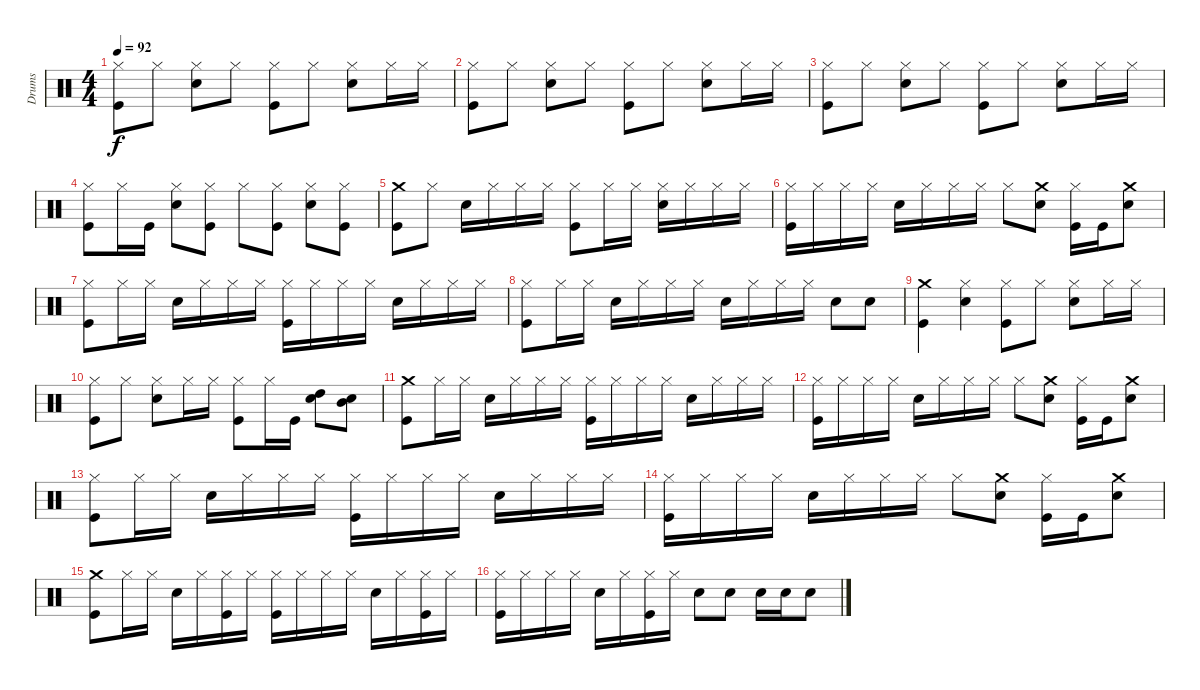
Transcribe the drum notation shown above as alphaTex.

\track ("Drums" "Drums") {instrument percussion}
\staff {score}
\articulation defaults
\ts (4 4)
\tempo 92
\clef neutral
\ks c
("Kick (hit)" "Hi-Hat (closed)").8{dy f} "Hi-Hat (closed)".8 ("Electric Snare (hit)" "Hi-Hat (closed)").8 "Hi-Hat (closed)".8 ("Kick (hit)" "Hi-Hat (closed)").8 "Hi-Hat (closed)".8 ("Electric Snare (hit)" "Hi-Hat (closed)").8 "Hi-Hat (closed)".16 "Hi-Hat (closed)".16 |
("Kick (hit)" "Hi-Hat (closed)").8 "Hi-Hat (closed)".8 ("Electric Snare (hit)" "Hi-Hat (closed)").8 "Hi-Hat (closed)".8 ("Kick (hit)" "Hi-Hat (closed)").8 "Hi-Hat (closed)".8 ("Electric Snare (hit)" "Hi-Hat (closed)").8 "Hi-Hat (closed)".16 "Hi-Hat (closed)".16 |
("Kick (hit)" "Hi-Hat (closed)").8 "Hi-Hat (closed)".8 ("Electric Snare (hit)" "Hi-Hat (closed)").8 "Hi-Hat (closed)".8 ("Kick (hit)" "Hi-Hat (closed)").8 "Hi-Hat (closed)".8 ("Electric Snare (hit)" "Hi-Hat (closed)").8 "Hi-Hat (closed)".16 "Hi-Hat (closed)".16 |
("Kick (hit)" "Hi-Hat (closed)").8 "Hi-Hat (closed)".16 "Kick (hit)".16 ("Electric Snare (hit)" "Hi-Hat (closed)").8 ("Kick (hit)" "Hi-Hat (closed)").8 "Hi-Hat (closed)".8 ("Kick (hit)" "Hi-Hat (closed)").8 ("Electric Snare (hit)" "Hi-Hat (closed)").8 ("Kick (hit)" "Hi-Hat (closed)").8 |
("Kick (hit)" "Crash medium (hit)").8 "Hi-Hat (closed)".8 "Electric Snare (hit)".16 "Hi-Hat (closed)".16 "Hi-Hat (closed)".16 "Hi-Hat (closed)".16 ("Kick (hit)" "Hi-Hat (closed)").8 "Hi-Hat (closed)".16 "Hi-Hat (closed)".16 ("Electric Snare (hit)" "Hi-Hat (closed)").16 "Hi-Hat (closed)".16 "Hi-Hat (closed)".16 "Hi-Hat (closed)".16 |
("Kick (hit)" "Hi-Hat (closed)").16 "Hi-Hat (closed)".16 "Hi-Hat (closed)".16 "Hi-Hat (closed)".16 "Electric Snare (hit)".16 "Hi-Hat (closed)".16 "Hi-Hat (closed)".16 "Hi-Hat (closed)".16 "Hi-Hat (closed)".8 ("Electric Snare (hit)" "Crash medium (hit)").8 ("Kick (hit)" "Hi-Hat (closed)").16 "Kick (hit)".16 ("Electric Snare (hit)" "Crash medium (hit)").8 |
("Kick (hit)" "Hi-Hat (closed)").8 "Hi-Hat (closed)".16 "Hi-Hat (closed)".16 "Electric Snare (hit)".16 "Hi-Hat (closed)".16 "Hi-Hat (closed)".16 "Hi-Hat (closed)".16 ("Kick (hit)" "Hi-Hat (closed)").16 "Hi-Hat (closed)".16 "Hi-Hat (closed)".16 "Hi-Hat (closed)".16 "Electric Snare (hit)".16 "Hi-Hat (closed)".16 "Hi-Hat (closed)".16 "Hi-Hat (closed)".16 |
("Kick (hit)" "Hi-Hat (closed)").8 "Hi-Hat (closed)".16 "Hi-Hat (closed)".16 "Electric Snare (hit)".16 "Hi-Hat (closed)".16 "Hi-Hat (closed)".16 "Hi-Hat (closed)".16 "Electric Snare (hit)".16 "Hi-Hat (closed)".16 "Hi-Hat (closed)".16 "Hi-Hat (closed)".16 "Electric Snare (hit)".8 "Electric Snare (hit)".8 |
("Kick (hit)" "Crash medium (hit)").4 ("Electric Snare (hit)" "Hi-Hat (closed)").4 ("Kick (hit)" "Hi-Hat (closed)").8 "Hi-Hat (closed)".8 ("Electric Snare (hit)" "Hi-Hat (closed)").8 "Hi-Hat (closed)".16 "Hi-Hat (closed)".16 |
("Kick (hit)" "Hi-Hat (closed)").8 "Hi-Hat (closed)".8 ("Electric Snare (hit)" "Hi-Hat (closed)").8 "Hi-Hat (closed)".16 "Hi-Hat (closed)".16 ("Kick (hit)" "Hi-Hat (closed)").8 "Hi-Hat (closed)".16 "Kick (hit)".16 ("Electric Snare (hit)" "High Tom (hit)").8 ("Electric Snare (hit)" "Mid Tom (hit)").8 |
("Kick (hit)" "Crash medium (hit)").8 "Hi-Hat (closed)".16 "Hi-Hat (closed)".16 "Electric Snare (hit)".16 "Hi-Hat (closed)".16 "Hi-Hat (closed)".16 "Hi-Hat (closed)".16 ("Kick (hit)" "Hi-Hat (closed)").16 "Hi-Hat (closed)".16 "Hi-Hat (closed)".16 "Hi-Hat (closed)".16 "Electric Snare (hit)".16 "Hi-Hat (closed)".16 "Hi-Hat (closed)".16 "Hi-Hat (closed)".16 |
("Kick (hit)" "Hi-Hat (closed)").16 "Hi-Hat (closed)".16 "Hi-Hat (closed)".16 "Hi-Hat (closed)".16 "Electric Snare (hit)".16 "Hi-Hat (closed)".16 "Hi-Hat (closed)".16 "Hi-Hat (closed)".16 "Hi-Hat (closed)".8 ("Electric Snare (hit)" "Crash medium (hit)").8 ("Kick (hit)" "Hi-Hat (closed)").16 "Kick (hit)".16 ("Electric Snare (hit)" "Crash medium (hit)").8 |
("Kick (hit)" "Hi-Hat (closed)").8 "Hi-Hat (closed)".16 "Hi-Hat (closed)".16 "Electric Snare (hit)".16 "Hi-Hat (closed)".16 "Hi-Hat (closed)".16 "Hi-Hat (closed)".16 ("Kick (hit)" "Hi-Hat (closed)").16 "Hi-Hat (closed)".16 "Hi-Hat (closed)".16 "Hi-Hat (closed)".16 "Electric Snare (hit)".16 "Hi-Hat (closed)".16 "Hi-Hat (closed)".16 "Hi-Hat (closed)".16 |
("Kick (hit)" "Hi-Hat (closed)").16 "Hi-Hat (closed)".16 "Hi-Hat (closed)".16 "Hi-Hat (closed)".16 "Electric Snare (hit)".16 "Hi-Hat (closed)".16 "Hi-Hat (closed)".16 "Hi-Hat (closed)".16 "Hi-Hat (closed)".8 ("Electric Snare (hit)" "Crash medium (hit)").8 ("Kick (hit)" "Hi-Hat (closed)").16 "Kick (hit)".16 ("Electric Snare (hit)" "Crash medium (hit)").8 |
("Kick (hit)" "Crash medium (hit)").8 "Hi-Hat (closed)".16 "Hi-Hat (closed)".16 "Electric Snare (hit)".16 "Hi-Hat (closed)".16 ("Kick (hit)" "Hi-Hat (closed)").16 "Hi-Hat (closed)".16 ("Kick (hit)" "Hi-Hat (closed)").16 "Hi-Hat (closed)".16 "Hi-Hat (closed)".16 "Hi-Hat (closed)".16 "Electric Snare (hit)".16 "Hi-Hat (closed)".16 ("Kick (hit)" "Hi-Hat (closed)").16 "Hi-Hat (closed)".16 |
("Kick (hit)" "Hi-Hat (closed)").16 "Hi-Hat (closed)".16 "Hi-Hat (closed)".16 "Hi-Hat (closed)".16 "Electric Snare (hit)".16 "Hi-Hat (closed)".16 ("Kick (hit)" "Hi-Hat (closed)").16 "Hi-Hat (closed)".16 "Electric Snare (hit)".8 "Electric Snare (hit)".8 "Electric Snare (hit)".16 "Electric Snare (hit)".16 "Electric Snare (hit)".8
